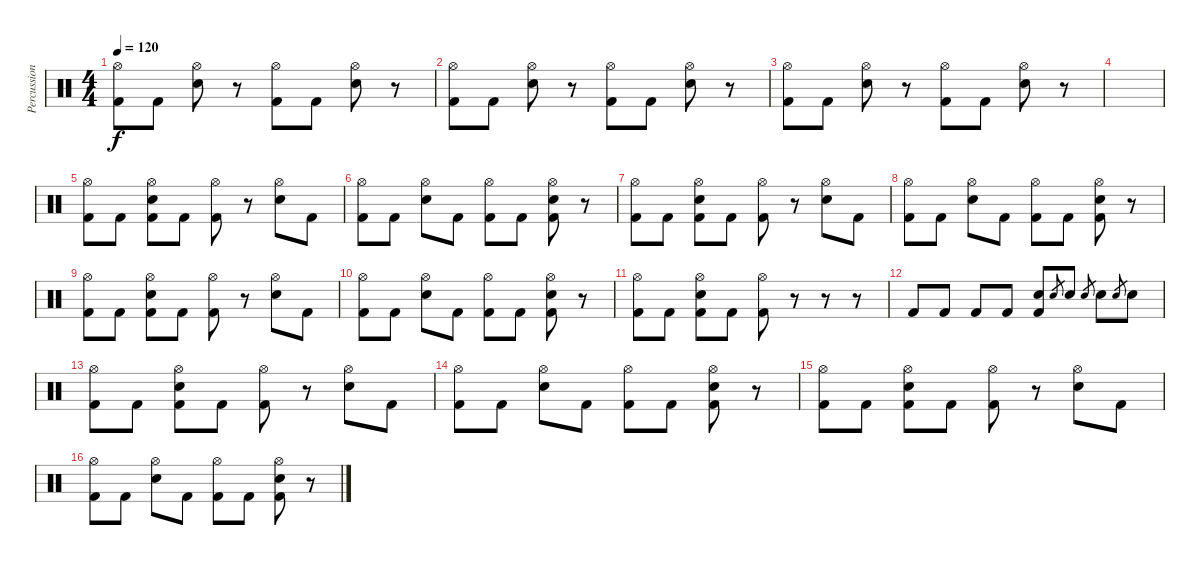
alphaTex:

\track ("Percussion" "Percussion") {solo instrument percussion}
\staff {score}
\articulation defaults
\ts (4 4)
\tempo 120
\clef neutral
\ks c
("Hi-Hat (open)" "Kick (hit) 2").8{dy f} "Kick (hit) 2".8 ("Hi-Hat (open)" "Snare (hit) 2").8 r.8 ("Hi-Hat (open)" "Kick (hit) 2").8 "Kick (hit) 2".8 ("Hi-Hat (open)" "Snare (hit) 2").8 r.8 |
("Hi-Hat (open)" "Kick (hit) 2").8 "Kick (hit) 2".8 ("Hi-Hat (open)" "Snare (hit) 2").8 r.8 ("Hi-Hat (open)" "Kick (hit) 2").8 "Kick (hit) 2".8 ("Hi-Hat (open)" "Snare (hit) 2").8 r.8 |
("Hi-Hat (open)" "Kick (hit) 2").8 "Kick (hit) 2".8 ("Hi-Hat (open)" "Snare (hit) 2").8 r.8 ("Hi-Hat (open)" "Kick (hit) 2").8 "Kick (hit) 2".8 ("Hi-Hat (open)" "Snare (hit) 2").8 r.8 |
|
("Hi-Hat (open)" "Kick (hit) 2").8 "Kick (hit) 2".8 ("Hi-Hat (open)" "Snare (hit) 2" "Kick (hit) 2").8 "Kick (hit) 2".8 ("Hi-Hat (open)" "Kick (hit) 2").8 r.8 ("Hi-Hat (open)" "Snare (hit) 2").8 "Kick (hit) 2".8 |
("Hi-Hat (open)" "Kick (hit) 2").8 "Kick (hit) 2".8 ("Hi-Hat (open)" "Snare (hit) 2").8 "Kick (hit) 2".8 ("Hi-Hat (open)" "Kick (hit) 2").8 "Kick (hit) 2".8 ("Hi-Hat (open)" "Snare (hit) 2" "Kick (hit) 2").8 r.8 |
("Hi-Hat (open)" "Kick (hit) 2").8 "Kick (hit) 2".8 ("Hi-Hat (open)" "Snare (hit) 2" "Kick (hit) 2").8 "Kick (hit) 2".8 ("Hi-Hat (open)" "Kick (hit) 2").8 r.8 ("Hi-Hat (open)" "Snare (hit) 2").8 "Kick (hit) 2".8 |
("Hi-Hat (open)" "Kick (hit) 2").8 "Kick (hit) 2".8 ("Hi-Hat (open)" "Snare (hit) 2").8 "Kick (hit) 2".8 ("Hi-Hat (open)" "Kick (hit) 2").8 "Kick (hit) 2".8 ("Hi-Hat (open)" "Snare (hit) 2" "Kick (hit) 2").8 r.8 |
("Hi-Hat (open)" "Kick (hit) 2").8 "Kick (hit) 2".8 ("Hi-Hat (open)" "Snare (hit) 2" "Kick (hit) 2").8 "Kick (hit) 2".8 ("Hi-Hat (open)" "Kick (hit) 2").8 r.8 ("Hi-Hat (open)" "Snare (hit) 2").8 "Kick (hit) 2".8 |
("Hi-Hat (open)" "Kick (hit) 2").8 "Kick (hit) 2".8 ("Hi-Hat (open)" "Snare (hit) 2").8 "Kick (hit) 2".8 ("Hi-Hat (open)" "Kick (hit) 2").8 "Kick (hit) 2".8 ("Hi-Hat (open)" "Snare (hit) 2" "Kick (hit) 2").8 r.8 |
("Hi-Hat (open)" "Kick (hit) 2").8 "Kick (hit) 2".8 ("Hi-Hat (open)" "Snare (hit) 2" "Kick (hit) 2").8 "Kick (hit) 2".8 ("Hi-Hat (open)" "Kick (hit) 2").8 r.8 r.8 r.8 |
"Kick (hit) 2".8 "Kick (hit) 2".8 "Kick (hit) 2".8 "Kick (hit) 2".8 ("Snare (hit) 2" "Kick (hit) 2").8 "Snare (hit) 2".8{gr} "Snare (hit) 2".8 "Snare (hit) 2".8{gr} "Snare (hit) 2".8 "Snare (hit) 2".8{gr} "Snare (hit) 2".8 |
("Hi-Hat (open)" "Kick (hit) 2").8 "Kick (hit) 2".8 ("Hi-Hat (open)" "Snare (hit) 2" "Kick (hit) 2").8 "Kick (hit) 2".8 ("Hi-Hat (open)" "Kick (hit) 2").8 r.8 ("Hi-Hat (open)" "Snare (hit) 2").8 "Kick (hit) 2".8 |
("Hi-Hat (open)" "Kick (hit) 2").8 "Kick (hit) 2".8 ("Hi-Hat (open)" "Snare (hit) 2").8 "Kick (hit) 2".8 ("Hi-Hat (open)" "Kick (hit) 2").8 "Kick (hit) 2".8 ("Hi-Hat (open)" "Snare (hit) 2" "Kick (hit) 2").8 r.8 |
("Hi-Hat (open)" "Kick (hit) 2").8 "Kick (hit) 2".8 ("Hi-Hat (open)" "Snare (hit) 2" "Kick (hit) 2").8 "Kick (hit) 2".8 ("Hi-Hat (open)" "Kick (hit) 2").8 r.8 ("Hi-Hat (open)" "Snare (hit) 2").8 "Kick (hit) 2".8 |
("Hi-Hat (open)" "Kick (hit) 2").8 "Kick (hit) 2".8 ("Hi-Hat (open)" "Snare (hit) 2").8 "Kick (hit) 2".8 ("Hi-Hat (open)" "Kick (hit) 2").8 "Kick (hit) 2".8 ("Hi-Hat (open)" "Snare (hit) 2" "Kick (hit) 2").8 r.8
